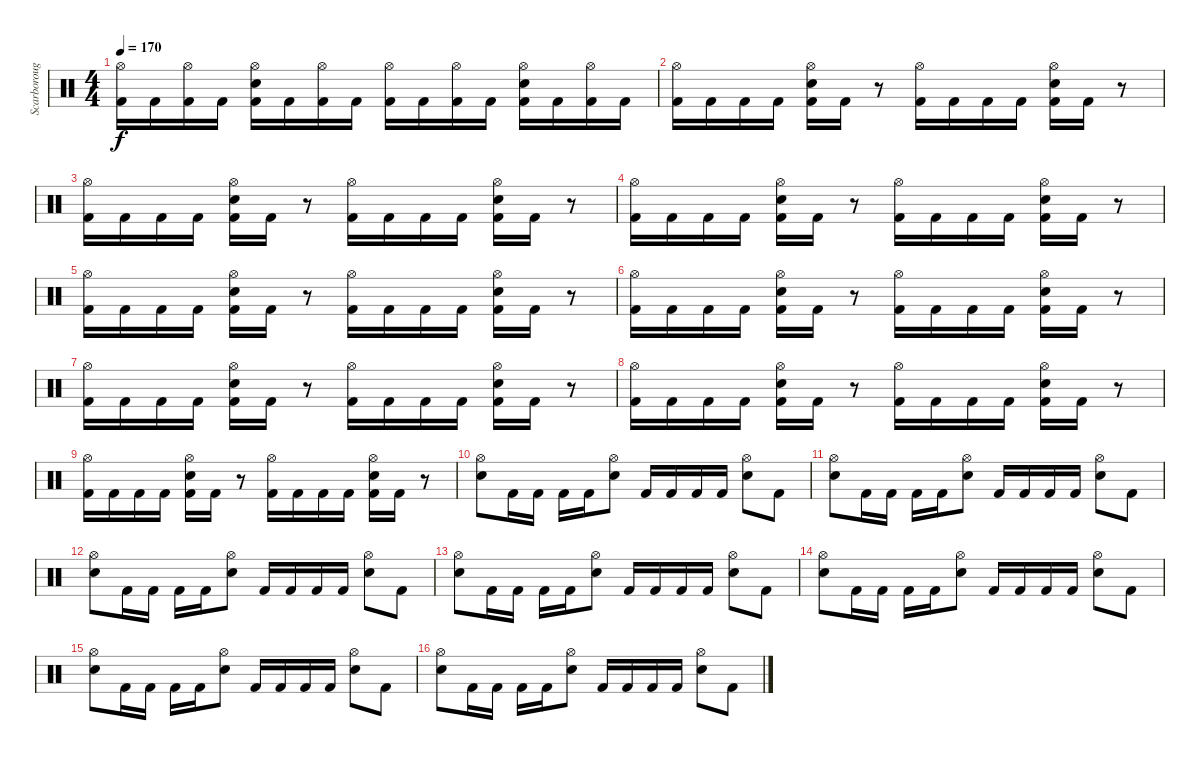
\track ("Scarborough" "Scarboroug") {instrument percussion}
\staff {score}
\articulation defaults
\ts (4 4)
\tempo 170
\clef neutral
\ks c
("Hi-Hat (open)" "Kick (hit) 2").16{dy f} "Kick (hit) 2".16 ("Hi-Hat (open)" "Kick (hit) 2").16 "Kick (hit) 2".16 ("Hi-Hat (open)" "Kick (hit) 2" "Snare (hit) 2").16 "Kick (hit) 2".16 ("Hi-Hat (open)" "Kick (hit) 2").16 "Kick (hit) 2".16 ("Hi-Hat (open)" "Kick (hit) 2").16 "Kick (hit) 2".16 ("Hi-Hat (open)" "Kick (hit) 2").16 "Kick (hit) 2".16 ("Hi-Hat (open)" "Kick (hit) 2" "Snare (hit) 2").16 "Kick (hit) 2".16 ("Hi-Hat (open)" "Kick (hit) 2").16 "Kick (hit) 2".16 |
("Hi-Hat (open)" "Kick (hit) 2").16 "Kick (hit) 2".16 "Kick (hit) 2".16 "Kick (hit) 2".16 ("Hi-Hat (open)" "Kick (hit) 2" "Snare (hit) 2").16 "Kick (hit) 2".16 r.8 ("Hi-Hat (open)" "Kick (hit) 2").16 "Kick (hit) 2".16 "Kick (hit) 2".16 "Kick (hit) 2".16 ("Hi-Hat (open)" "Kick (hit) 2" "Snare (hit) 2").16 "Kick (hit) 2".16 r.8 |
("Hi-Hat (open)" "Kick (hit) 2").16 "Kick (hit) 2".16 "Kick (hit) 2".16 "Kick (hit) 2".16 ("Hi-Hat (open)" "Kick (hit) 2" "Snare (hit) 2").16 "Kick (hit) 2".16 r.8 ("Hi-Hat (open)" "Kick (hit) 2").16 "Kick (hit) 2".16 "Kick (hit) 2".16 "Kick (hit) 2".16 ("Hi-Hat (open)" "Kick (hit) 2" "Snare (hit) 2").16 "Kick (hit) 2".16 r.8 |
("Hi-Hat (open)" "Kick (hit) 2").16 "Kick (hit) 2".16 "Kick (hit) 2".16 "Kick (hit) 2".16 ("Hi-Hat (open)" "Kick (hit) 2" "Snare (hit) 2").16 "Kick (hit) 2".16 r.8 ("Hi-Hat (open)" "Kick (hit) 2").16 "Kick (hit) 2".16 "Kick (hit) 2".16 "Kick (hit) 2".16 ("Hi-Hat (open)" "Kick (hit) 2" "Snare (hit) 2").16 "Kick (hit) 2".16 r.8 |
("Hi-Hat (open)" "Kick (hit) 2").16 "Kick (hit) 2".16 "Kick (hit) 2".16 "Kick (hit) 2".16 ("Hi-Hat (open)" "Kick (hit) 2" "Snare (hit) 2").16 "Kick (hit) 2".16 r.8 ("Hi-Hat (open)" "Kick (hit) 2").16 "Kick (hit) 2".16 "Kick (hit) 2".16 "Kick (hit) 2".16 ("Hi-Hat (open)" "Kick (hit) 2" "Snare (hit) 2").16 "Kick (hit) 2".16 r.8 |
("Hi-Hat (open)" "Kick (hit) 2").16 "Kick (hit) 2".16 "Kick (hit) 2".16 "Kick (hit) 2".16 ("Hi-Hat (open)" "Kick (hit) 2" "Snare (hit) 2").16 "Kick (hit) 2".16 r.8 ("Hi-Hat (open)" "Kick (hit) 2").16 "Kick (hit) 2".16 "Kick (hit) 2".16 "Kick (hit) 2".16 ("Hi-Hat (open)" "Kick (hit) 2" "Snare (hit) 2").16 "Kick (hit) 2".16 r.8 |
("Hi-Hat (open)" "Kick (hit) 2").16 "Kick (hit) 2".16 "Kick (hit) 2".16 "Kick (hit) 2".16 ("Hi-Hat (open)" "Kick (hit) 2" "Snare (hit) 2").16 "Kick (hit) 2".16 r.8 ("Hi-Hat (open)" "Kick (hit) 2").16 "Kick (hit) 2".16 "Kick (hit) 2".16 "Kick (hit) 2".16 ("Hi-Hat (open)" "Kick (hit) 2" "Snare (hit) 2").16 "Kick (hit) 2".16 r.8 |
("Hi-Hat (open)" "Kick (hit) 2").16 "Kick (hit) 2".16 "Kick (hit) 2".16 "Kick (hit) 2".16 ("Hi-Hat (open)" "Kick (hit) 2" "Snare (hit) 2").16 "Kick (hit) 2".16 r.8 ("Hi-Hat (open)" "Kick (hit) 2").16 "Kick (hit) 2".16 "Kick (hit) 2".16 "Kick (hit) 2".16 ("Hi-Hat (open)" "Kick (hit) 2" "Snare (hit) 2").16 "Kick (hit) 2".16 r.8 |
("Hi-Hat (open)" "Kick (hit) 2").16 "Kick (hit) 2".16 "Kick (hit) 2".16 "Kick (hit) 2".16 ("Hi-Hat (open)" "Kick (hit) 2" "Snare (hit) 2").16 "Kick (hit) 2".16 r.8 ("Hi-Hat (open)" "Kick (hit) 2").16 "Kick (hit) 2".16 "Kick (hit) 2".16 "Kick (hit) 2".16 ("Hi-Hat (open)" "Kick (hit) 2" "Snare (hit) 2").16 "Kick (hit) 2".16 r.8 |
("Snare (hit) 2" "Hi-Hat (open)").8 "Kick (hit) 2".16 "Kick (hit) 2".16 "Kick (hit) 2".16 "Kick (hit) 2".16 ("Snare (hit) 2" "Hi-Hat (open)").8 "Kick (hit) 2".16 "Kick (hit) 2".16 "Kick (hit) 2".16 "Kick (hit) 2".16 ("Snare (hit) 2" "Hi-Hat (open)").8 "Kick (hit) 2".8 |
("Snare (hit) 2" "Hi-Hat (open)").8 "Kick (hit) 2".16 "Kick (hit) 2".16 "Kick (hit) 2".16 "Kick (hit) 2".16 ("Snare (hit) 2" "Hi-Hat (open)").8 "Kick (hit) 2".16 "Kick (hit) 2".16 "Kick (hit) 2".16 "Kick (hit) 2".16 ("Snare (hit) 2" "Hi-Hat (open)").8 "Kick (hit) 2".8 |
("Snare (hit) 2" "Hi-Hat (open)").8 "Kick (hit) 2".16 "Kick (hit) 2".16 "Kick (hit) 2".16 "Kick (hit) 2".16 ("Snare (hit) 2" "Hi-Hat (open)").8 "Kick (hit) 2".16 "Kick (hit) 2".16 "Kick (hit) 2".16 "Kick (hit) 2".16 ("Snare (hit) 2" "Hi-Hat (open)").8 "Kick (hit) 2".8 |
("Snare (hit) 2" "Hi-Hat (open)").8 "Kick (hit) 2".16 "Kick (hit) 2".16 "Kick (hit) 2".16 "Kick (hit) 2".16 ("Snare (hit) 2" "Hi-Hat (open)").8 "Kick (hit) 2".16 "Kick (hit) 2".16 "Kick (hit) 2".16 "Kick (hit) 2".16 ("Snare (hit) 2" "Hi-Hat (open)").8 "Kick (hit) 2".8 |
("Snare (hit) 2" "Hi-Hat (open)").8 "Kick (hit) 2".16 "Kick (hit) 2".16 "Kick (hit) 2".16 "Kick (hit) 2".16 ("Snare (hit) 2" "Hi-Hat (open)").8 "Kick (hit) 2".16 "Kick (hit) 2".16 "Kick (hit) 2".16 "Kick (hit) 2".16 ("Snare (hit) 2" "Hi-Hat (open)").8 "Kick (hit) 2".8 |
("Snare (hit) 2" "Hi-Hat (open)").8 "Kick (hit) 2".16 "Kick (hit) 2".16 "Kick (hit) 2".16 "Kick (hit) 2".16 ("Snare (hit) 2" "Hi-Hat (open)").8 "Kick (hit) 2".16 "Kick (hit) 2".16 "Kick (hit) 2".16 "Kick (hit) 2".16 ("Snare (hit) 2" "Hi-Hat (open)").8 "Kick (hit) 2".8 |
("Snare (hit) 2" "Hi-Hat (open)").8 "Kick (hit) 2".16 "Kick (hit) 2".16 "Kick (hit) 2".16 "Kick (hit) 2".16 ("Snare (hit) 2" "Hi-Hat (open)").8 "Kick (hit) 2".16 "Kick (hit) 2".16 "Kick (hit) 2".16 "Kick (hit) 2".16 ("Snare (hit) 2" "Hi-Hat (open)").8 "Kick (hit) 2".8
